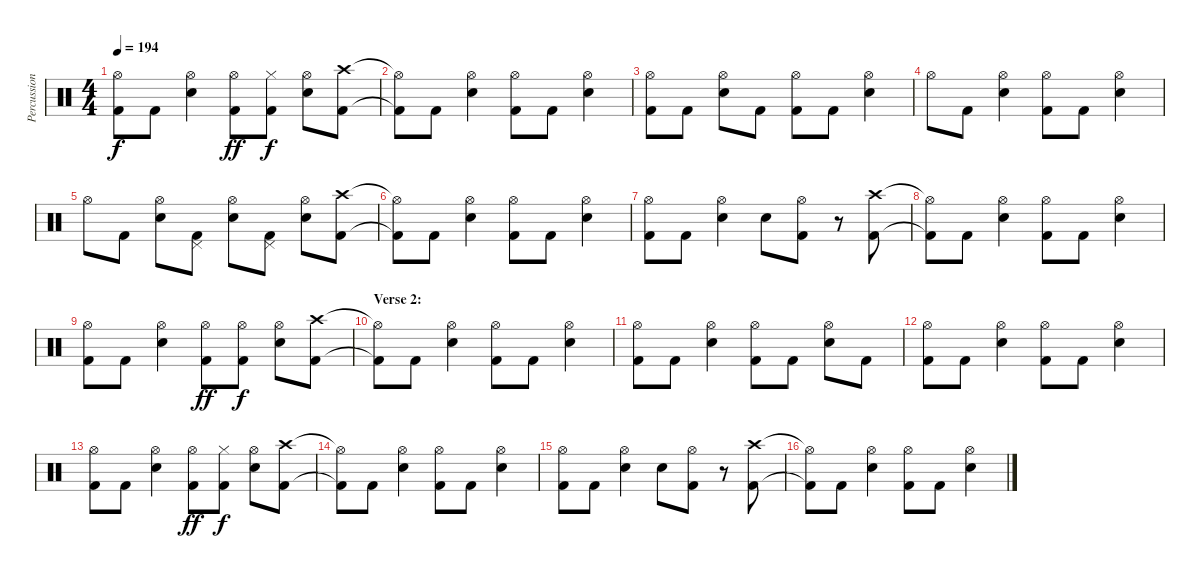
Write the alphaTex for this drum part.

\track ("Percussion" "Percussion") {instrument percussion}
\staff {score}
\articulation defaults
\ts (4 4)
\tempo 194
\clef neutral
\ks c
("Hi-Hat (open)" "Kick (hit) 2").8{dy f} "Kick (hit) 2".8 ("Hi-Hat (open)" "Electric Snare (hit)").4 ("Hi-Hat (open)" "Kick (hit) 2").8{dy ff} ("Hi-Hat (closed)" "Kick (hit) 2").8{dy f} ("Hi-Hat (open)" "Electric Snare (hit)").8 ("Crash high (hit)" "Kick (hit) 2").8 |
("Hi-Hat (open)"{t} "Kick (hit) 2"{t}).8 "Kick (hit) 2".8 ("Hi-Hat (open)" "Electric Snare (hit)").4 ("Hi-Hat (open)" "Kick (hit) 2").8 "Kick (hit) 2".8 ("Hi-Hat (open)" "Electric Snare (hit)").4 |
("Hi-Hat (open)" "Kick (hit) 2").8 "Kick (hit) 2".8 ("Hi-Hat (open)" "Electric Snare (hit)").8 "Kick (hit) 2".8 ("Hi-Hat (open)" "Kick (hit) 2").8 "Kick (hit) 2".8 ("Hi-Hat (open)" "Electric Snare (hit)").4 |
"Hi-Hat (open)".8 "Kick (hit) 2".8 ("Hi-Hat (open)" "Electric Snare (hit)").4 ("Hi-Hat (open)" "Kick (hit) 2").8 "Kick (hit) 2".8 ("Hi-Hat (open)" "Electric Snare (hit)").4 |
"Hi-Hat (open)".8 "Kick (hit) 2".8 ("Hi-Hat (open)" "Electric Snare (hit)").8 ("Pedal Hi-Hat (hit)" "Kick (hit) 2").8 ("Hi-Hat (open)" "Electric Snare (hit)").8 ("Pedal Hi-Hat (hit)" "Kick (hit) 2").8 ("Hi-Hat (open)" "Electric Snare (hit)").8 ("Crash high (hit)" "Kick (hit) 2").8 |
("Hi-Hat (open)"{t} "Kick (hit) 2"{t}).8 "Kick (hit) 2".8 ("Hi-Hat (open)" "Electric Snare (hit)").4 ("Hi-Hat (open)" "Kick (hit) 2").8 "Kick (hit) 2".8 ("Hi-Hat (open)" "Electric Snare (hit)").4 |
("Hi-Hat (open)" "Kick (hit) 2").8 "Kick (hit) 2".8 ("Hi-Hat (open)" "Electric Snare (hit)").4 "Electric Snare (hit)".8 ("Hi-Hat (open)" "Kick (hit) 2").8 r.8 ("Crash high (hit)" "Kick (hit) 2").8 |
("Hi-Hat (open)"{t} "Kick (hit) 2"{t}).8 "Kick (hit) 2".8 ("Hi-Hat (open)" "Electric Snare (hit)").4 ("Hi-Hat (open)" "Kick (hit) 2").8 "Kick (hit) 2".8 ("Hi-Hat (open)" "Electric Snare (hit)").4 |
("Hi-Hat (open)" "Kick (hit) 2").8 "Kick (hit) 2".8 ("Hi-Hat (open)" "Electric Snare (hit)").4 ("Hi-Hat (open)" "Kick (hit) 2").8{dy ff} ("Hi-Hat (open)" "Kick (hit) 2").8{dy f} ("Hi-Hat (open)" "Electric Snare (hit)").8 ("Crash high (hit)" "Kick (hit) 2").8 |
\section ("" "Verse 2:")
("Hi-Hat (open)"{t} "Kick (hit) 2"{t}).8 "Kick (hit) 2".8 ("Hi-Hat (open)" "Electric Snare (hit)").4 ("Hi-Hat (open)" "Kick (hit) 2").8 "Kick (hit) 2".8 ("Hi-Hat (open)" "Electric Snare (hit)").4 |
("Hi-Hat (open)" "Kick (hit) 2").8 "Kick (hit) 2".8 ("Hi-Hat (open)" "Electric Snare (hit)").4 ("Hi-Hat (open)" "Kick (hit) 2").8 "Kick (hit) 2".8 ("Hi-Hat (open)" "Electric Snare (hit)").8 "Kick (hit) 2".8 |
("Hi-Hat (open)" "Kick (hit) 2").8 "Kick (hit) 2".8 ("Hi-Hat (open)" "Electric Snare (hit)").4 ("Hi-Hat (open)" "Kick (hit) 2").8 "Kick (hit) 2".8 ("Hi-Hat (open)" "Electric Snare (hit)").4 |
("Hi-Hat (open)" "Kick (hit) 2").8 "Kick (hit) 2".8 ("Hi-Hat (open)" "Electric Snare (hit)").4 ("Hi-Hat (open)" "Kick (hit) 2").8{dy ff} ("Hi-Hat (closed)" "Kick (hit) 2").8{dy f} ("Hi-Hat (open)" "Electric Snare (hit)").8 ("Crash high (hit)" "Kick (hit) 2").8 |
("Hi-Hat (open)"{t} "Kick (hit) 2"{t}).8 "Kick (hit) 2".8 ("Hi-Hat (open)" "Electric Snare (hit)").4 ("Hi-Hat (open)" "Kick (hit) 2").8 "Kick (hit) 2".8 ("Hi-Hat (open)" "Electric Snare (hit)").4 |
("Hi-Hat (open)" "Kick (hit) 2").8 "Kick (hit) 2".8 ("Hi-Hat (open)" "Electric Snare (hit)").4 "Electric Snare (hit)".8 ("Hi-Hat (open)" "Kick (hit) 2").8 r.8 ("Crash high (hit)" "Kick (hit) 2").8 |
("Hi-Hat (open)"{t} "Kick (hit) 2"{t}).8 "Kick (hit) 2".8 ("Hi-Hat (open)" "Electric Snare (hit)").4 ("Hi-Hat (open)" "Kick (hit) 2").8 "Kick (hit) 2".8 ("Hi-Hat (open)" "Electric Snare (hit)").4
